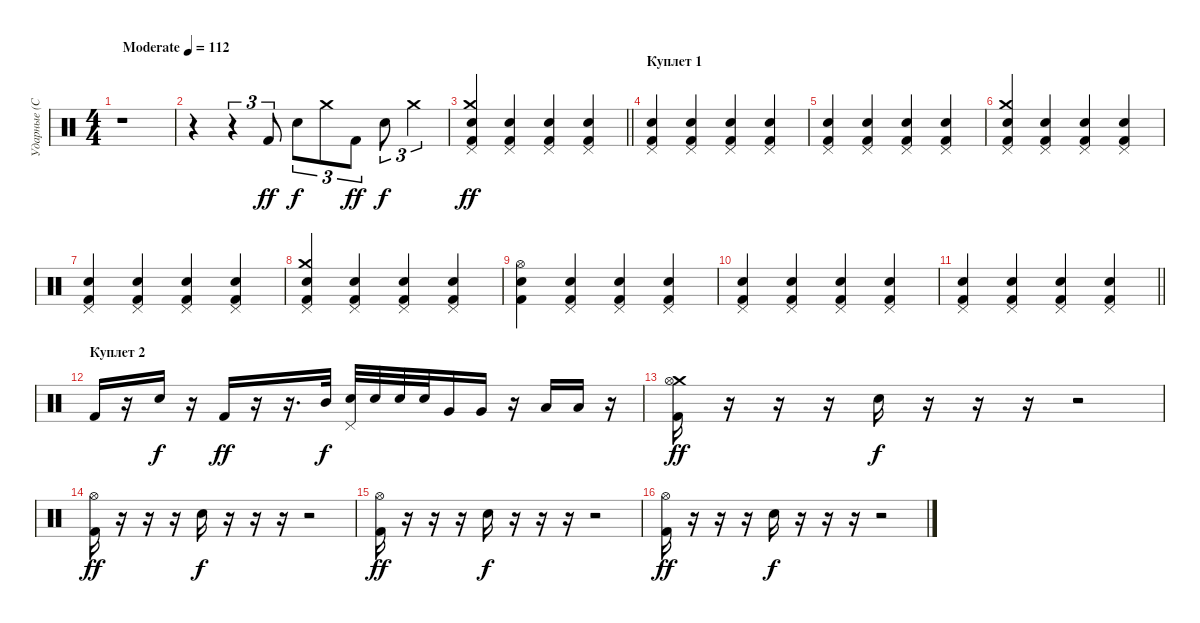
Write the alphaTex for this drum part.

\track ("Ударные (С.Кавагое)" "Ударные (С") {instrument percussion}
\staff {score}
\articulation defaults
\ts (4 4)
\tempo (112 "Moderate")
\clef neutral
\ks c
r.1{dy ff} |
r.4 r.4{tu (3 2)} "Kick (hit) 2".8{tu (3 2)} "Electric Snare (hit)".8{tu (3 2) dy f} "Crash medium (hit)".8{tu (3 2)} "Kick (hit) 2".8{tu (3 2) dy ff} "Electric Snare (hit)".8{tu (3 2) dy f} "Crash medium (hit)".4{tu (3 2)} |
\barLineRight lightlight
("Crash medium (hit)" "Pedal Hi-Hat (hit)" "Electric Snare (hit)" "Kick (hit) 2").4{dy ff} ("Pedal Hi-Hat (hit)" "Electric Snare (hit)" "Kick (hit) 2").4 ("Pedal Hi-Hat (hit)" "Electric Snare (hit)" "Kick (hit) 2").4 ("Pedal Hi-Hat (hit)" "Electric Snare (hit)" "Kick (hit) 2").4 |
\section ("" "Куплет 1")
("Pedal Hi-Hat (hit)" "Electric Snare (hit)" "Kick (hit) 2").4 ("Pedal Hi-Hat (hit)" "Electric Snare (hit)" "Kick (hit) 2").4 ("Pedal Hi-Hat (hit)" "Electric Snare (hit)" "Kick (hit) 2").4 ("Pedal Hi-Hat (hit)" "Electric Snare (hit)" "Kick (hit) 2").4 |
("Pedal Hi-Hat (hit)" "Electric Snare (hit)" "Kick (hit) 2").4 ("Pedal Hi-Hat (hit)" "Electric Snare (hit)" "Kick (hit) 2").4 ("Pedal Hi-Hat (hit)" "Electric Snare (hit)" "Kick (hit) 2").4 ("Pedal Hi-Hat (hit)" "Electric Snare (hit)" "Kick (hit) 2").4 |
("Crash medium (hit)" "Pedal Hi-Hat (hit)" "Electric Snare (hit)" "Kick (hit) 2").4 ("Pedal Hi-Hat (hit)" "Electric Snare (hit)" "Kick (hit) 2").4 ("Pedal Hi-Hat (hit)" "Electric Snare (hit)" "Kick (hit) 2").4 ("Pedal Hi-Hat (hit)" "Electric Snare (hit)" "Kick (hit) 2").4 |
("Pedal Hi-Hat (hit)" "Electric Snare (hit)" "Kick (hit) 2").4 ("Pedal Hi-Hat (hit)" "Electric Snare (hit)" "Kick (hit) 2").4 ("Pedal Hi-Hat (hit)" "Electric Snare (hit)" "Kick (hit) 2").4 ("Pedal Hi-Hat (hit)" "Electric Snare (hit)" "Kick (hit) 2").4 |
("Crash medium (hit)" "Pedal Hi-Hat (hit)" "Electric Snare (hit)" "Kick (hit) 2").4 ("Pedal Hi-Hat (hit)" "Electric Snare (hit)" "Kick (hit) 2").4 ("Pedal Hi-Hat (hit)" "Electric Snare (hit)" "Kick (hit) 2").4 ("Pedal Hi-Hat (hit)" "Electric Snare (hit)" "Kick (hit) 2").4 |
("Hi-Hat (open)" "Electric Snare (hit)" "Kick (hit) 2").4 ("Pedal Hi-Hat (hit)" "Electric Snare (hit)" "Kick (hit) 2").4 ("Pedal Hi-Hat (hit)" "Electric Snare (hit)" "Kick (hit) 2").4 ("Pedal Hi-Hat (hit)" "Electric Snare (hit)" "Kick (hit) 2").4 |
("Pedal Hi-Hat (hit)" "Electric Snare (hit)" "Kick (hit) 2").4 ("Pedal Hi-Hat (hit)" "Electric Snare (hit)" "Kick (hit) 2").4 ("Pedal Hi-Hat (hit)" "Electric Snare (hit)" "Kick (hit) 2").4 ("Pedal Hi-Hat (hit)" "Electric Snare (hit)" "Kick (hit) 2").4 |
\barLineRight lightlight
("Pedal Hi-Hat (hit)" "Electric Snare (hit)" "Kick (hit) 2").4 ("Pedal Hi-Hat (hit)" "Electric Snare (hit)" "Kick (hit) 2").4 ("Pedal Hi-Hat (hit)" "Electric Snare (hit)" "Kick (hit) 2").4 ("Pedal Hi-Hat (hit)" "Electric Snare (hit)" "Kick (hit) 2").4 |
\section ("" "Куплет 2")
"Kick (hit) 2".16 r.16 "Electric Snare (hit)".16{dy f} r.16 "Kick (hit) 2".16{dy ff} r.16 r.16{d} "Mid Tom (hit)".32{dy f} ("Pedal Hi-Hat (hit)" "Electric Snare (hit)").32 "Electric Snare (hit)".32 "Electric Snare (hit)".32 "Electric Snare (hit)".32 "Very Low Tom (hit)".16 "Very Low Tom (hit)".16 r.16 "Low Floor Tom (hit)".16 "Low Floor Tom (hit)".16 r.16 |
("Crash medium (hit)" "Hi-Hat (open)" "Kick (hit) 2").16{dy ff} r.16 r.16 r.16 "Electric Snare (hit)".16{dy f} r.16 r.16 r.16 r.2 |
("Hi-Hat (open)" "Kick (hit) 2").16{dy ff} r.16 r.16 r.16 "Electric Snare (hit)".16{dy f} r.16 r.16 r.16 r.2 |
("Hi-Hat (open)" "Kick (hit) 2").16{dy ff} r.16 r.16 r.16 "Electric Snare (hit)".16{dy f} r.16 r.16 r.16 r.2 |
("Hi-Hat (open)" "Kick (hit) 2").16{dy ff} r.16 r.16 r.16 "Electric Snare (hit)".16{dy f} r.16 r.16 r.16 r.2
